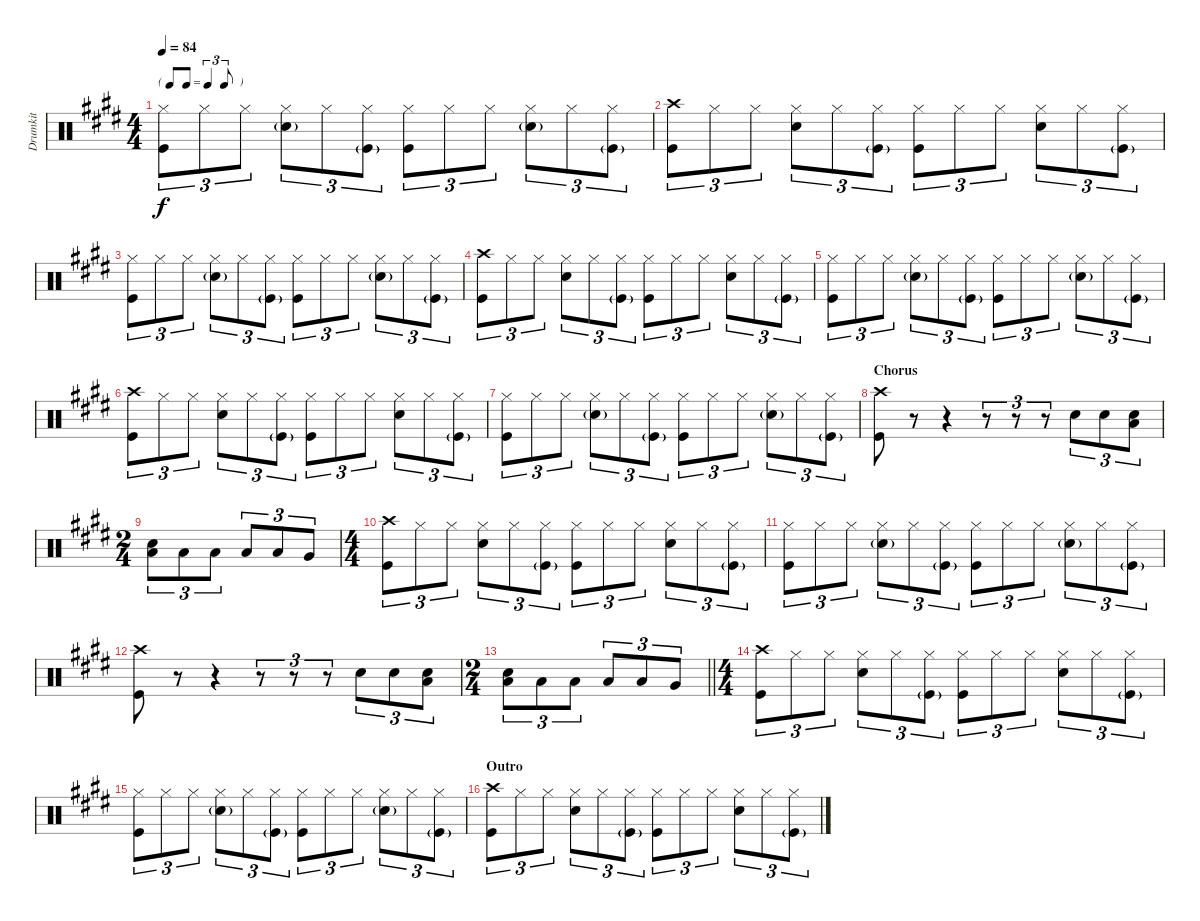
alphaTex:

\track ("Drumkit" "Drumkit") {instrument percussion}
\staff {score}
\articulation defaults
\ts (4 4)
\tf triplet8th
\tempo 84
\clef neutral
\ks e
("Kick (hit)" "Hi-Hat (closed)").8{tu (3 2) dy f} "Hi-Hat (closed)".8{tu (3 2)} "Hi-Hat (closed)".8{tu (3 2)} ("Hi-Hat (closed)" "Snare (hit) 2"{g}).8{tu (3 2)} "Hi-Hat (closed)".8{tu (3 2)} ("Hi-Hat (closed)" "Kick (hit)"{g}).8{tu (3 2)} ("Kick (hit)" "Hi-Hat (closed)").8{tu (3 2)} "Hi-Hat (closed)".8{tu (3 2)} "Hi-Hat (closed)".8{tu (3 2)} ("Snare (hit) 2"{g} "Hi-Hat (closed)").8{tu (3 2)} "Hi-Hat (closed)".8{tu (3 2)} ("Hi-Hat (closed)" "Kick (hit)"{g}).8{tu (3 2)} |
("Kick (hit)" "Crash high (hit)").8{tu (3 2)} "Hi-Hat (closed)".8{tu (3 2)} "Hi-Hat (closed)".8{tu (3 2)} ("Hi-Hat (closed)" "Snare (hit) 2").8{tu (3 2)} "Hi-Hat (closed)".8{tu (3 2)} ("Hi-Hat (closed)" "Kick (hit)"{g}).8{tu (3 2)} ("Kick (hit)" "Hi-Hat (closed)").8{tu (3 2)} "Hi-Hat (closed)".8{tu (3 2)} "Hi-Hat (closed)".8{tu (3 2)} ("Snare (hit) 2" "Hi-Hat (closed)").8{tu (3 2)} "Hi-Hat (closed)".8{tu (3 2)} ("Hi-Hat (closed)" "Kick (hit)"{g}).8{tu (3 2)} |
("Kick (hit)" "Hi-Hat (closed)").8{tu (3 2)} "Hi-Hat (closed)".8{tu (3 2)} "Hi-Hat (closed)".8{tu (3 2)} ("Hi-Hat (closed)" "Snare (hit) 2"{g}).8{tu (3 2)} "Hi-Hat (closed)".8{tu (3 2)} ("Hi-Hat (closed)" "Kick (hit)"{g}).8{tu (3 2)} ("Kick (hit)" "Hi-Hat (closed)").8{tu (3 2)} "Hi-Hat (closed)".8{tu (3 2)} "Hi-Hat (closed)".8{tu (3 2)} ("Snare (hit) 2"{g} "Hi-Hat (closed)").8{tu (3 2)} "Hi-Hat (closed)".8{tu (3 2)} ("Hi-Hat (closed)" "Kick (hit)"{g}).8{tu (3 2)} |
("Kick (hit)" "Crash high (hit)").8{tu (3 2)} "Hi-Hat (closed)".8{tu (3 2)} "Hi-Hat (closed)".8{tu (3 2)} ("Hi-Hat (closed)" "Snare (hit) 2").8{tu (3 2)} "Hi-Hat (closed)".8{tu (3 2)} ("Hi-Hat (closed)" "Kick (hit)"{g}).8{tu (3 2)} ("Kick (hit)" "Hi-Hat (closed)").8{tu (3 2)} "Hi-Hat (closed)".8{tu (3 2)} "Hi-Hat (closed)".8{tu (3 2)} ("Snare (hit) 2" "Hi-Hat (closed)").8{tu (3 2)} "Hi-Hat (closed)".8{tu (3 2)} ("Hi-Hat (closed)" "Kick (hit)"{g}).8{tu (3 2)} |
("Kick (hit)" "Hi-Hat (closed)").8{tu (3 2)} "Hi-Hat (closed)".8{tu (3 2)} "Hi-Hat (closed)".8{tu (3 2)} ("Hi-Hat (closed)" "Snare (hit) 2"{g}).8{tu (3 2)} "Hi-Hat (closed)".8{tu (3 2)} ("Hi-Hat (closed)" "Kick (hit)"{g}).8{tu (3 2)} ("Kick (hit)" "Hi-Hat (closed)").8{tu (3 2)} "Hi-Hat (closed)".8{tu (3 2)} "Hi-Hat (closed)".8{tu (3 2)} ("Snare (hit) 2"{g} "Hi-Hat (closed)").8{tu (3 2)} "Hi-Hat (closed)".8{tu (3 2)} ("Hi-Hat (closed)" "Kick (hit)"{g}).8{tu (3 2)} |
("Kick (hit)" "Crash high (hit)").8{tu (3 2)} "Hi-Hat (closed)".8{tu (3 2)} "Hi-Hat (closed)".8{tu (3 2)} ("Hi-Hat (closed)" "Snare (hit) 2").8{tu (3 2)} "Hi-Hat (closed)".8{tu (3 2)} ("Hi-Hat (closed)" "Kick (hit)"{g}).8{tu (3 2)} ("Kick (hit)" "Hi-Hat (closed)").8{tu (3 2)} "Hi-Hat (closed)".8{tu (3 2)} "Hi-Hat (closed)".8{tu (3 2)} ("Snare (hit) 2" "Hi-Hat (closed)").8{tu (3 2)} "Hi-Hat (closed)".8{tu (3 2)} ("Hi-Hat (closed)" "Kick (hit)"{g}).8{tu (3 2)} |
("Kick (hit)" "Hi-Hat (closed)").8{tu (3 2)} "Hi-Hat (closed)".8{tu (3 2)} "Hi-Hat (closed)".8{tu (3 2)} ("Hi-Hat (closed)" "Snare (hit) 2"{g}).8{tu (3 2)} "Hi-Hat (closed)".8{tu (3 2)} ("Hi-Hat (closed)" "Kick (hit)"{g}).8{tu (3 2)} ("Kick (hit)" "Hi-Hat (closed)").8{tu (3 2)} "Hi-Hat (closed)".8{tu (3 2)} "Hi-Hat (closed)".8{tu (3 2)} ("Snare (hit) 2"{g} "Hi-Hat (closed)").8{tu (3 2)} "Hi-Hat (closed)".8{tu (3 2)} ("Hi-Hat (closed)" "Kick (hit)"{g}).8{tu (3 2)} |
\section ("" "Chorus")
("Kick (hit)" "Crash high (hit)").8 r.8 r.4 r.8{tu (3 2)} r.8{tu (3 2)} r.8{tu (3 2)} "Snare (hit) 2".8{tu (3 2)} "Snare (hit) 2".8{tu (3 2)} ("Snare (hit) 2" "Low Tom (hit)").8{tu (3 2)} |
\ts (2 4)
("Snare (hit) 2" "Low Tom (hit)").8{tu (3 2)} "Low Tom (hit)".8{tu (3 2)} "Low Tom (hit)".8{tu (3 2)} "Low Tom (hit)".8{tu (3 2)} "Low Tom (hit)".8{tu (3 2)} "Very Low Tom (hit)".8{tu (3 2)} |
\ts (4 4)
("Kick (hit)" "Crash high (hit)").8{tu (3 2)} "Hi-Hat (closed)".8{tu (3 2)} "Hi-Hat (closed)".8{tu (3 2)} ("Hi-Hat (closed)" "Snare (hit) 2").8{tu (3 2)} "Hi-Hat (closed)".8{tu (3 2)} ("Hi-Hat (closed)" "Kick (hit)"{g}).8{tu (3 2)} ("Kick (hit)" "Hi-Hat (closed)").8{tu (3 2)} "Hi-Hat (closed)".8{tu (3 2)} "Hi-Hat (closed)".8{tu (3 2)} ("Snare (hit) 2" "Hi-Hat (closed)").8{tu (3 2)} "Hi-Hat (closed)".8{tu (3 2)} ("Hi-Hat (closed)" "Kick (hit)"{g}).8{tu (3 2)} |
("Kick (hit)" "Hi-Hat (closed)").8{tu (3 2)} "Hi-Hat (closed)".8{tu (3 2)} "Hi-Hat (closed)".8{tu (3 2)} ("Hi-Hat (closed)" "Snare (hit) 2"{g}).8{tu (3 2)} "Hi-Hat (closed)".8{tu (3 2)} ("Hi-Hat (closed)" "Kick (hit)"{g}).8{tu (3 2)} ("Kick (hit)" "Hi-Hat (closed)").8{tu (3 2)} "Hi-Hat (closed)".8{tu (3 2)} "Hi-Hat (closed)".8{tu (3 2)} ("Snare (hit) 2"{g} "Hi-Hat (closed)").8{tu (3 2)} "Hi-Hat (closed)".8{tu (3 2)} ("Hi-Hat (closed)" "Kick (hit)"{g}).8{tu (3 2)} |
("Kick (hit)" "Crash high (hit)").8 r.8 r.4 r.8{tu (3 2)} r.8{tu (3 2)} r.8{tu (3 2)} "Snare (hit) 2".8{tu (3 2)} "Snare (hit) 2".8{tu (3 2)} ("Snare (hit) 2" "Low Tom (hit)").8{tu (3 2)} |
\ts (2 4)
\barLineRight lightlight
("Snare (hit) 2" "Low Tom (hit)").8{tu (3 2)} "Low Tom (hit)".8{tu (3 2)} "Low Tom (hit)".8{tu (3 2)} "Low Tom (hit)".8{tu (3 2)} "Low Tom (hit)".8{tu (3 2)} "Very Low Tom (hit)".8{tu (3 2)} |
\ts (4 4)
("Kick (hit)" "Crash high (hit)").8{tu (3 2)} "Hi-Hat (closed)".8{tu (3 2)} "Hi-Hat (closed)".8{tu (3 2)} ("Hi-Hat (closed)" "Snare (hit) 2").8{tu (3 2)} "Hi-Hat (closed)".8{tu (3 2)} ("Hi-Hat (closed)" "Kick (hit)"{g}).8{tu (3 2)} ("Kick (hit)" "Hi-Hat (closed)").8{tu (3 2)} "Hi-Hat (closed)".8{tu (3 2)} "Hi-Hat (closed)".8{tu (3 2)} ("Snare (hit) 2" "Hi-Hat (closed)").8{tu (3 2)} "Hi-Hat (closed)".8{tu (3 2)} ("Hi-Hat (closed)" "Kick (hit)"{g}).8{tu (3 2)} |
("Kick (hit)" "Hi-Hat (closed)").8{tu (3 2)} "Hi-Hat (closed)".8{tu (3 2)} "Hi-Hat (closed)".8{tu (3 2)} ("Hi-Hat (closed)" "Snare (hit) 2"{g}).8{tu (3 2)} "Hi-Hat (closed)".8{tu (3 2)} ("Hi-Hat (closed)" "Kick (hit)"{g}).8{tu (3 2)} ("Kick (hit)" "Hi-Hat (closed)").8{tu (3 2)} "Hi-Hat (closed)".8{tu (3 2)} "Hi-Hat (closed)".8{tu (3 2)} ("Snare (hit) 2"{g} "Hi-Hat (closed)").8{tu (3 2)} "Hi-Hat (closed)".8{tu (3 2)} ("Hi-Hat (closed)" "Kick (hit)"{g}).8{tu (3 2)} |
\section ("" "Outro")
("Kick (hit)" "Crash high (hit)").8{tu (3 2)} "Hi-Hat (closed)".8{tu (3 2)} "Hi-Hat (closed)".8{tu (3 2)} ("Hi-Hat (closed)" "Snare (hit) 2").8{tu (3 2)} "Hi-Hat (closed)".8{tu (3 2)} ("Hi-Hat (closed)" "Kick (hit)"{g}).8{tu (3 2)} ("Kick (hit)" "Hi-Hat (closed)").8{tu (3 2)} "Hi-Hat (closed)".8{tu (3 2)} "Hi-Hat (closed)".8{tu (3 2)} ("Snare (hit) 2" "Hi-Hat (closed)").8{tu (3 2)} "Hi-Hat (closed)".8{tu (3 2)} ("Hi-Hat (closed)" "Kick (hit)"{g}).8{tu (3 2)}
